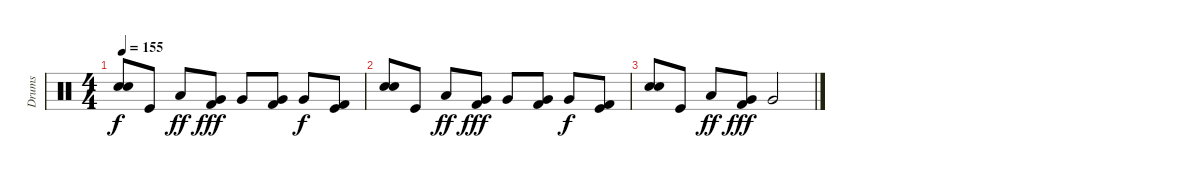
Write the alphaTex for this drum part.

\track ("Drums" "Drums") {instrument percussion}
\staff {score}
\articulation defaults
\ts (4 4)
\tempo 155
\clef neutral
\ks c
("Snare (hit) 2" "Electric Snare (hit)").8{dy f} "Kick (hit)".8 "Low Floor Tom (hit)".8{dy ff} ("Very Low Tom (hit)" "Kick (hit) 2").8{dy fff} "Very Low Tom (hit)".8 ("Very Low Tom (hit)" "Kick (hit) 2").8 "Very Low Tom (hit)".8{dy f} ("Kick (hit)" "Kick (hit) 2").8 |
("Snare (hit) 2" "Electric Snare (hit)").8 "Kick (hit)".8 "Low Floor Tom (hit)".8{dy ff} ("Very Low Tom (hit)" "Kick (hit) 2").8{dy fff} "Very Low Tom (hit)".8 ("Very Low Tom (hit)" "Kick (hit) 2").8 "Very Low Tom (hit)".8{dy f} ("Kick (hit)" "Kick (hit) 2").8 |
("Snare (hit) 2" "Electric Snare (hit)").8 "Kick (hit)".8 "Low Floor Tom (hit)".8{dy ff} ("Very Low Tom (hit)" "Kick (hit) 2").8{dy fff} "Very Low Tom (hit)".2
